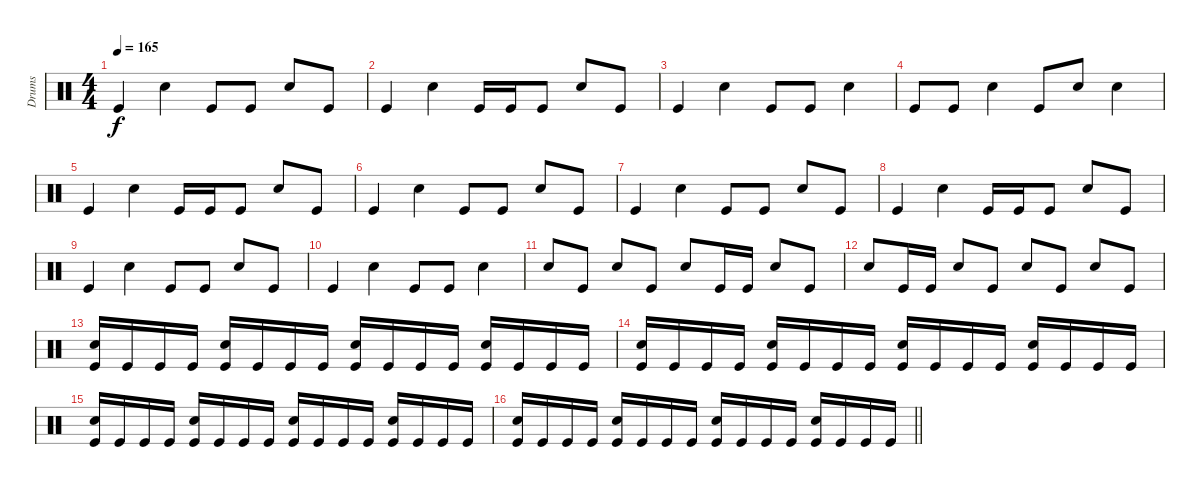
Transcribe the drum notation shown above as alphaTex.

\track ("Drums" "Drums") {instrument percussion}
\staff {score}
\articulation defaults
\ts (4 4)
\tempo 165
\clef neutral
\ks c "Kick (hit)".4{dy f} "Snare (hit) 2".4 "Kick (hit)".8 "Kick (hit)".8 "Snare (hit) 2".8 "Kick (hit)".8
|
"Kick (hit)".4 "Snare (hit) 2".4 "Kick (hit)".16 "Kick (hit)".16 "Kick (hit)".8 "Snare (hit) 2".8 "Kick (hit)".8 |
"Kick (hit)".4 "Snare (hit) 2".4 "Kick (hit)".8 "Kick (hit)".8 "Snare (hit) 2".4 |
"Kick (hit)".8 "Kick (hit)".8 "Snare (hit) 2".4 "Kick (hit)".8 "Snare (hit) 2".8 "Snare (hit) 2".4 |
"Kick (hit)".4 "Snare (hit) 2".4 "Kick (hit)".16 "Kick (hit)".16 "Kick (hit)".8 "Snare (hit) 2".8 "Kick (hit)".8 |
"Kick (hit)".4 "Snare (hit) 2".4 "Kick (hit)".8 "Kick (hit)".8 "Snare (hit) 2".8 "Kick (hit)".8 |
"Kick (hit)".4 "Snare (hit) 2".4 "Kick (hit)".8 "Kick (hit)".8 "Snare (hit) 2".8 "Kick (hit)".8 |
"Kick (hit)".4 "Snare (hit) 2".4 "Kick (hit)".16 "Kick (hit)".16 "Kick (hit)".8 "Snare (hit) 2".8 "Kick (hit)".8 |
"Kick (hit)".4 "Snare (hit) 2".4 "Kick (hit)".8 "Kick (hit)".8 "Snare (hit) 2".8 "Kick (hit)".8 |
"Kick (hit)".4 "Snare (hit) 2".4 "Kick (hit)".8 "Kick (hit)".8 "Snare (hit) 2".4 |
"Snare (hit) 2".8 "Kick (hit)".8 "Snare (hit) 2".8 "Kick (hit)".8 "Snare (hit) 2".8 "Kick (hit)".16 "Kick (hit)".16 "Snare (hit) 2".8 "Kick (hit)".8 |
"Snare (hit) 2".8 "Kick (hit)".16 "Kick (hit)".16 "Snare (hit) 2".8 "Kick (hit)".8 "Snare (hit) 2".8 "Kick (hit)".8 "Snare (hit) 2".8 "Kick (hit)".8 |
("Kick (hit)" "Snare (hit) 2").16 "Kick (hit)".16 "Kick (hit)".16 "Kick (hit)".16 ("Kick (hit)" "Snare (hit) 2").16 "Kick (hit)".16 "Kick (hit)".16 "Kick (hit)".16 ("Kick (hit)" "Snare (hit) 2").16 "Kick (hit)".16 "Kick (hit)".16 "Kick (hit)".16 ("Kick (hit)" "Snare (hit) 2").16 "Kick (hit)".16 "Kick (hit)".16 "Kick (hit)".16 |
("Kick (hit)" "Snare (hit) 2").16 "Kick (hit)".16 "Kick (hit)".16 "Kick (hit)".16 ("Kick (hit)" "Snare (hit) 2").16 "Kick (hit)".16 "Kick (hit)".16 "Kick (hit)".16 ("Kick (hit)" "Snare (hit) 2").16 "Kick (hit)".16 "Kick (hit)".16 "Kick (hit)".16 ("Kick (hit)" "Snare (hit) 2").16 "Kick (hit)".16 "Kick (hit)".16 "Kick (hit)".16 |
("Kick (hit)" "Snare (hit) 2").16 "Kick (hit)".16 "Kick (hit)".16 "Kick (hit)".16 ("Kick (hit)" "Snare (hit) 2").16 "Kick (hit)".16 "Kick (hit)".16 "Kick (hit)".16 ("Kick (hit)" "Snare (hit) 2").16 "Kick (hit)".16 "Kick (hit)".16 "Kick (hit)".16 ("Kick (hit)" "Snare (hit) 2").16 "Kick (hit)".16 "Kick (hit)".16 "Kick (hit)".16 |
\barLineRight lightlight
("Kick (hit)" "Snare (hit) 2").16 "Kick (hit)".16 "Kick (hit)".16 "Kick (hit)".16 ("Kick (hit)" "Snare (hit) 2").16 "Kick (hit)".16 "Kick (hit)".16 "Kick (hit)".16 ("Kick (hit)" "Snare (hit) 2").16 "Kick (hit)".16 "Kick (hit)".16 "Kick (hit)".16 ("Kick (hit)" "Snare (hit) 2").16 "Kick (hit)".16 "Kick (hit)".16 "Kick (hit)".16
